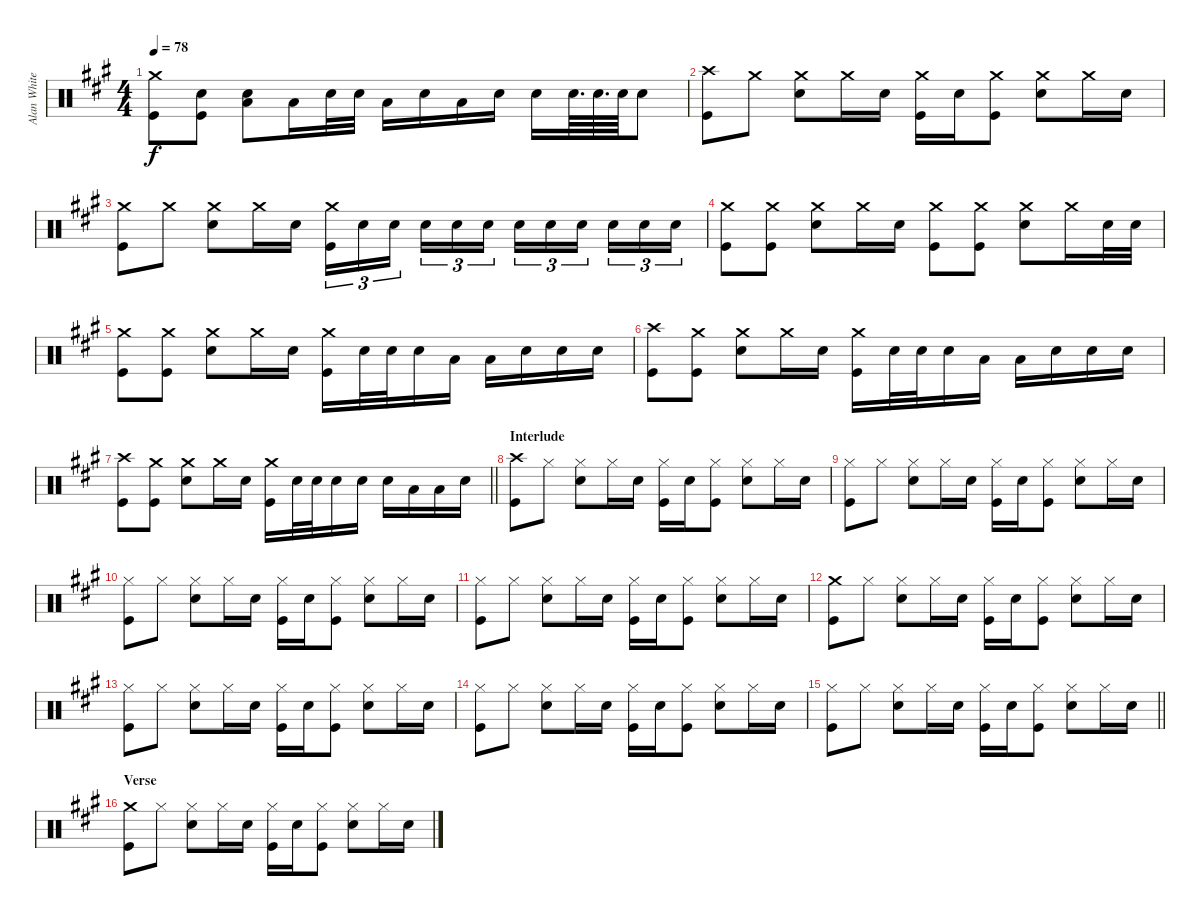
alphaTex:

\track ("Alan White (Drums)" "Alan White") {instrument percussion}
\staff {score}
\articulation defaults
\ts (4 4)
\tempo 78
\clef neutral
\ks a
("Crash medium (hit)" "Kick (hit)").8{dy f} ("Snare (hit) 2" "Kick (hit)").8 ("Low Tom (hit)" "Snare (hit) 2").8 "Low Tom (hit)".16 "Snare (hit) 2".32 "Snare (hit) 2".32 "Low Tom (hit)".16 "Snare (hit) 2".16 "Low Tom (hit)".16 "Snare (hit) 2".16 "Snare (hit) 2".16 "Snare (hit) 2".64{d} "Snare (hit) 2".64{d} "Snare (hit) 2".64 "Snare (hit) 2".8 |
("Crash high (hit)" "Kick (hit)").8 "Crash medium (hit)".8 ("Crash medium (hit)" "Snare (hit) 2").8 "Crash medium (hit)".16 "Snare (hit) 2".16 ("Crash medium (hit)" "Kick (hit)").16 "Snare (hit) 2".16 ("Crash medium (hit)" "Kick (hit)").8 ("Crash medium (hit)" "Snare (hit) 2").8 "Crash medium (hit)".16 "Snare (hit) 2".16 |
("Crash medium (hit)" "Kick (hit)").8 "Crash medium (hit)".8 ("Crash medium (hit)" "Snare (hit) 2").8 "Crash medium (hit)".16 "Snare (hit) 2".16 ("Crash medium (hit)" "Kick (hit)").16{tu (3 2)} "Snare (hit) 2".16{tu (3 2)} "Snare (hit) 2".16{tu (3 2) beam splitsecondary} "Snare (hit) 2".16{tu (3 2)} "Snare (hit) 2".16{tu (3 2)} "Snare (hit) 2".16{tu (3 2)} "Snare (hit) 2".16{tu (3 2)} "Snare (hit) 2".16{tu (3 2)} "Snare (hit) 2".16{tu (3 2) beam splitsecondary} "Snare (hit) 2".16{tu (3 2)} "Snare (hit) 2".16{tu (3 2)} "Snare (hit) 2".16{tu (3 2)} |
("Crash medium (hit)" "Kick (hit)").8 ("Crash medium (hit)" "Kick (hit)").8 ("Crash medium (hit)" "Snare (hit) 2").8 "Crash medium (hit)".16 "Snare (hit) 2".16 ("Crash medium (hit)" "Kick (hit)").8 ("Crash medium (hit)" "Kick (hit)").8 ("Crash medium (hit)" "Snare (hit) 2").8 "Crash medium (hit)".16 "Snare (hit) 2".32 "Snare (hit) 2".32 |
("Crash medium (hit)" "Kick (hit)").8 ("Crash medium (hit)" "Kick (hit)").8 ("Crash medium (hit)" "Snare (hit) 2").8 "Crash medium (hit)".16 "Snare (hit) 2".16 ("Crash medium (hit)" "Kick (hit)").16 "Snare (hit) 2".32 "Snare (hit) 2".32 "Snare (hit) 2".16 "Low Tom (hit)".16 "Low Tom (hit)".16 "Snare (hit) 2".16 "Snare (hit) 2".16 "Snare (hit) 2".16 |
("Crash high (hit)" "Kick (hit)").8 ("Crash medium (hit)" "Kick (hit)").8 ("Crash medium (hit)" "Snare (hit) 2").8 "Crash medium (hit)".16 "Snare (hit) 2".16 ("Crash medium (hit)" "Kick (hit)").16 "Snare (hit) 2".32 "Snare (hit) 2".32 "Snare (hit) 2".16 "Low Tom (hit)".16 "Low Tom (hit)".16 "Snare (hit) 2".16 "Snare (hit) 2".16 "Snare (hit) 2".16 |
\barLineRight lightlight
("Crash high (hit)" "Kick (hit)").8 ("Crash medium (hit)" "Kick (hit)").8 ("Crash medium (hit)" "Snare (hit) 2").8 "Crash medium (hit)".16 "Snare (hit) 2".16 ("Crash medium (hit)" "Kick (hit)").16 "Snare (hit) 2".32 "Snare (hit) 2".32 "Snare (hit) 2".16 "Snare (hit) 2".16 "Snare (hit) 2".16 "Low Tom (hit)".16 "Low Tom (hit)".16 "Snare (hit) 2".16 |
\section ("" "Interlude")
("Crash high (hit)" "Kick (hit)").8 "Hi-Hat (closed)".8 ("Hi-Hat (closed)" "Snare (hit) 2").8 "Hi-Hat (closed)".16 "Snare (hit) 2".16 ("Hi-Hat (closed)" "Kick (hit)").16 "Snare (hit) 2".16 ("Hi-Hat (closed)" "Kick (hit)").8 ("Hi-Hat (closed)" "Snare (hit) 2").8 "Hi-Hat (closed)".16 "Snare (hit) 2".16 |
("Hi-Hat (closed)" "Kick (hit)").8 "Hi-Hat (closed)".8 ("Hi-Hat (closed)" "Snare (hit) 2").8 "Hi-Hat (closed)".16 "Snare (hit) 2".16 ("Hi-Hat (closed)" "Kick (hit)").16 "Snare (hit) 2".16 ("Hi-Hat (closed)" "Kick (hit)").8 ("Hi-Hat (closed)" "Snare (hit) 2").8 "Hi-Hat (closed)".16 "Snare (hit) 2".16 |
("Hi-Hat (closed)" "Kick (hit)").8 "Hi-Hat (closed)".8 ("Hi-Hat (closed)" "Snare (hit) 2").8 "Hi-Hat (closed)".16 "Snare (hit) 2".16 ("Hi-Hat (closed)" "Kick (hit)").16 "Snare (hit) 2".16 ("Hi-Hat (closed)" "Kick (hit)").8 ("Hi-Hat (closed)" "Snare (hit) 2").8 "Hi-Hat (closed)".16 "Snare (hit) 2".16 |
("Hi-Hat (closed)" "Kick (hit)").8 "Hi-Hat (closed)".8 ("Hi-Hat (closed)" "Snare (hit) 2").8 "Hi-Hat (closed)".16 "Snare (hit) 2".16 ("Hi-Hat (closed)" "Kick (hit)").16 "Snare (hit) 2".16 ("Hi-Hat (closed)" "Kick (hit)").8 ("Hi-Hat (closed)" "Snare (hit) 2").8 "Hi-Hat (closed)".16 "Snare (hit) 2".16 |
("Crash medium (hit)" "Kick (hit)").8 "Hi-Hat (closed)".8 ("Hi-Hat (closed)" "Snare (hit) 2").8 "Hi-Hat (closed)".16 "Snare (hit) 2".16 ("Hi-Hat (closed)" "Kick (hit)").16 "Snare (hit) 2".16 ("Hi-Hat (closed)" "Kick (hit)").8 ("Hi-Hat (closed)" "Snare (hit) 2").8 "Hi-Hat (closed)".16 "Snare (hit) 2".16 |
("Hi-Hat (closed)" "Kick (hit)").8 "Hi-Hat (closed)".8 ("Hi-Hat (closed)" "Snare (hit) 2").8 "Hi-Hat (closed)".16 "Snare (hit) 2".16 ("Hi-Hat (closed)" "Kick (hit)").16 "Snare (hit) 2".16 ("Hi-Hat (closed)" "Kick (hit)").8 ("Hi-Hat (closed)" "Snare (hit) 2").8 "Hi-Hat (closed)".16 "Snare (hit) 2".16 |
("Hi-Hat (closed)" "Kick (hit)").8 "Hi-Hat (closed)".8 ("Hi-Hat (closed)" "Snare (hit) 2").8 "Hi-Hat (closed)".16 "Snare (hit) 2".16 ("Hi-Hat (closed)" "Kick (hit)").16 "Snare (hit) 2".16 ("Hi-Hat (closed)" "Kick (hit)").8 ("Hi-Hat (closed)" "Snare (hit) 2").8 "Hi-Hat (closed)".16 "Snare (hit) 2".16 |
\barLineRight lightlight
("Hi-Hat (closed)" "Kick (hit)").8 "Hi-Hat (closed)".8 ("Hi-Hat (closed)" "Snare (hit) 2").8 "Hi-Hat (closed)".16 "Snare (hit) 2".16 ("Hi-Hat (closed)" "Kick (hit)").16 "Snare (hit) 2".16 ("Hi-Hat (closed)" "Kick (hit)").8 ("Hi-Hat (closed)" "Snare (hit) 2").8 "Hi-Hat (closed)".16 "Snare (hit) 2".16 |
\section ("" "Verse")
("Crash medium (hit)" "Kick (hit)").8 "Hi-Hat (closed)".8 ("Hi-Hat (closed)" "Snare (hit) 2").8 "Hi-Hat (closed)".16 "Snare (hit) 2".16 ("Hi-Hat (closed)" "Kick (hit)").16 "Snare (hit) 2".16 ("Hi-Hat (closed)" "Kick (hit)").8 ("Hi-Hat (closed)" "Snare (hit) 2").8 "Hi-Hat (closed)".16 "Snare (hit) 2".16
